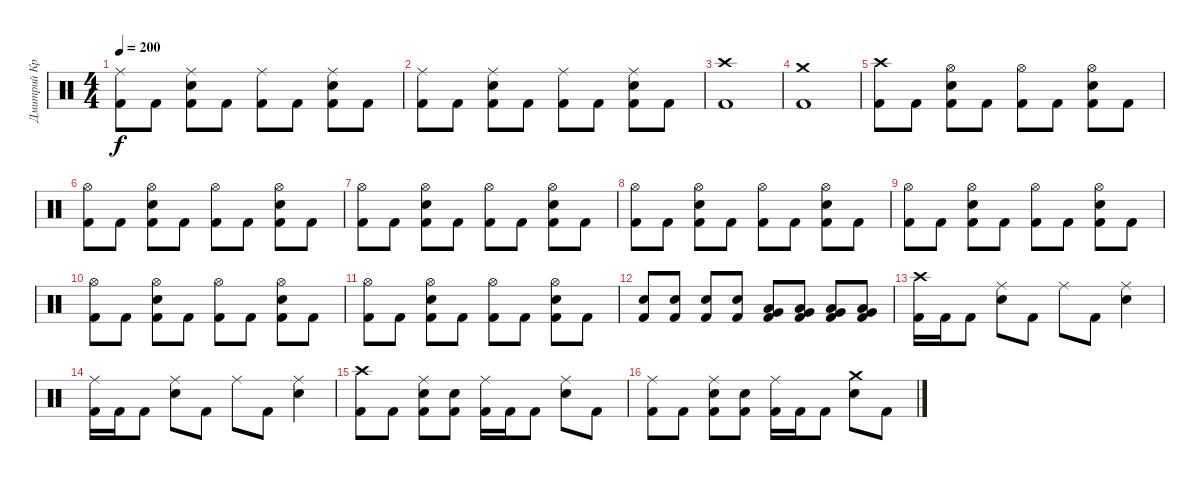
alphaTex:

\track ("Дмитрий Кривенков" "Дмитрий Кр") {instrument percussion}
\staff {score}
\articulation defaults
\ts (4 4)
\tempo 200
\clef neutral
\ks c
("Ride (middle)" "Kick (hit) 2").8{dy f} "Kick (hit) 2".8 ("Ride (middle)" "Electric Snare (hit)" "Kick (hit) 2").8 "Kick (hit) 2".8 ("Ride (middle)" "Kick (hit) 2").8 "Kick (hit) 2".8 ("Ride (middle)" "Electric Snare (hit)" "Kick (hit) 2").8 "Kick (hit) 2".8 |
("Ride (middle)" "Kick (hit) 2").8 "Kick (hit) 2".8 ("Ride (middle)" "Electric Snare (hit)" "Kick (hit) 2").8 "Kick (hit) 2".8 ("Ride (middle)" "Kick (hit) 2").8 "Kick (hit) 2".8 ("Ride (middle)" "Electric Snare (hit)" "Kick (hit) 2").8 "Kick (hit) 2".8 |
("Crash high (hit)" "Kick (hit) 2").1 |
("Crash medium (hit)" "Kick (hit) 2").1 |
("Crash high (hit)" "Kick (hit) 2").8 "Kick (hit) 2".8 ("Hi-Hat (open)" "Electric Snare (hit)" "Kick (hit) 2").8 "Kick (hit) 2".8 ("Hi-Hat (open)" "Kick (hit) 2").8 "Kick (hit) 2".8 ("Hi-Hat (open)" "Electric Snare (hit)" "Kick (hit) 2").8 "Kick (hit) 2".8 |
("Hi-Hat (open)" "Kick (hit) 2").8 "Kick (hit) 2".8 ("Hi-Hat (open)" "Electric Snare (hit)" "Kick (hit) 2").8 "Kick (hit) 2".8 ("Hi-Hat (open)" "Kick (hit) 2").8 "Kick (hit) 2".8 ("Hi-Hat (open)" "Electric Snare (hit)" "Kick (hit) 2").8 "Kick (hit) 2".8 |
("Hi-Hat (open)" "Kick (hit) 2").8 "Kick (hit) 2".8 ("Hi-Hat (open)" "Electric Snare (hit)" "Kick (hit) 2").8 "Kick (hit) 2".8 ("Hi-Hat (open)" "Kick (hit) 2").8 "Kick (hit) 2".8 ("Hi-Hat (open)" "Electric Snare (hit)" "Kick (hit) 2").8 "Kick (hit) 2".8 |
("Hi-Hat (open)" "Kick (hit) 2").8 "Kick (hit) 2".8 ("Hi-Hat (open)" "Electric Snare (hit)" "Kick (hit) 2").8 "Kick (hit) 2".8 ("Hi-Hat (open)" "Kick (hit) 2").8 "Kick (hit) 2".8 ("Hi-Hat (open)" "Electric Snare (hit)" "Kick (hit) 2").8 "Kick (hit) 2".8 |
("Hi-Hat (open)" "Kick (hit) 2").8 "Kick (hit) 2".8 ("Hi-Hat (open)" "Electric Snare (hit)" "Kick (hit) 2").8 "Kick (hit) 2".8 ("Hi-Hat (open)" "Kick (hit) 2").8 "Kick (hit) 2".8 ("Hi-Hat (open)" "Electric Snare (hit)" "Kick (hit) 2").8 "Kick (hit) 2".8 |
("Hi-Hat (open)" "Kick (hit) 2").8 "Kick (hit) 2".8 ("Hi-Hat (open)" "Electric Snare (hit)" "Kick (hit) 2").8 "Kick (hit) 2".8 ("Hi-Hat (open)" "Kick (hit) 2").8 "Kick (hit) 2".8 ("Hi-Hat (open)" "Electric Snare (hit)" "Kick (hit) 2").8 "Kick (hit) 2".8 |
("Hi-Hat (open)" "Kick (hit) 2").8 "Kick (hit) 2".8 ("Hi-Hat (open)" "Electric Snare (hit)" "Kick (hit) 2").8 "Kick (hit) 2".8 ("Hi-Hat (open)" "Kick (hit) 2").8 "Kick (hit) 2".8 ("Hi-Hat (open)" "Electric Snare (hit)" "Kick (hit) 2").8 "Kick (hit) 2".8 |
("Electric Snare (hit)" "Kick (hit) 2").8 ("Electric Snare (hit)" "Kick (hit) 2").8 ("Electric Snare (hit)" "Kick (hit) 2").8 ("Electric Snare (hit)" "Kick (hit) 2").8 ("Low Tom (hit)" "Very Low Tom (hit)" "Kick (hit) 2").8 ("Low Tom (hit)" "Very Low Tom (hit)" "Kick (hit) 2").8 ("Very Low Tom (hit)" "Low Floor Tom (hit)" "Kick (hit) 2").8 ("Very Low Tom (hit)" "Low Floor Tom (hit)" "Kick (hit) 2").8 |
("Crash high (hit)" "Kick (hit) 2").16 "Kick (hit) 2".16 "Kick (hit) 2".8 ("Ride (middle)" "Electric Snare (hit)").8 "Kick (hit) 2".8 "Ride (middle)".8 "Kick (hit) 2".8 ("Ride (middle)" "Electric Snare (hit)").4 |
("Ride (middle)" "Kick (hit) 2").16 "Kick (hit) 2".16 "Kick (hit) 2".8 ("Ride (middle)" "Electric Snare (hit)").8 "Kick (hit) 2".8 "Ride (middle)".8 "Kick (hit) 2".8 ("Ride (middle)" "Electric Snare (hit)").4 |
("Crash high (hit)" "Kick (hit) 2").8 "Kick (hit) 2".8 ("Ride (middle)" "Electric Snare (hit)" "Kick (hit) 2").8 ("Electric Snare (hit)" "Kick (hit) 2").8 ("Ride (middle)" "Kick (hit) 2").16 "Kick (hit) 2".16 "Kick (hit) 2".8 ("Ride (middle)" "Electric Snare (hit)").8 "Kick (hit) 2".8 |
("Ride (middle)" "Kick (hit) 2").8 "Kick (hit) 2".8 ("Ride (middle)" "Electric Snare (hit)" "Kick (hit) 2").8 ("Electric Snare (hit)" "Kick (hit) 2").8 ("Ride (middle)" "Kick (hit) 2").16 "Kick (hit) 2".16 "Kick (hit) 2".8 ("Crash medium (hit)" "Electric Snare (hit)").8 "Kick (hit) 2".8
